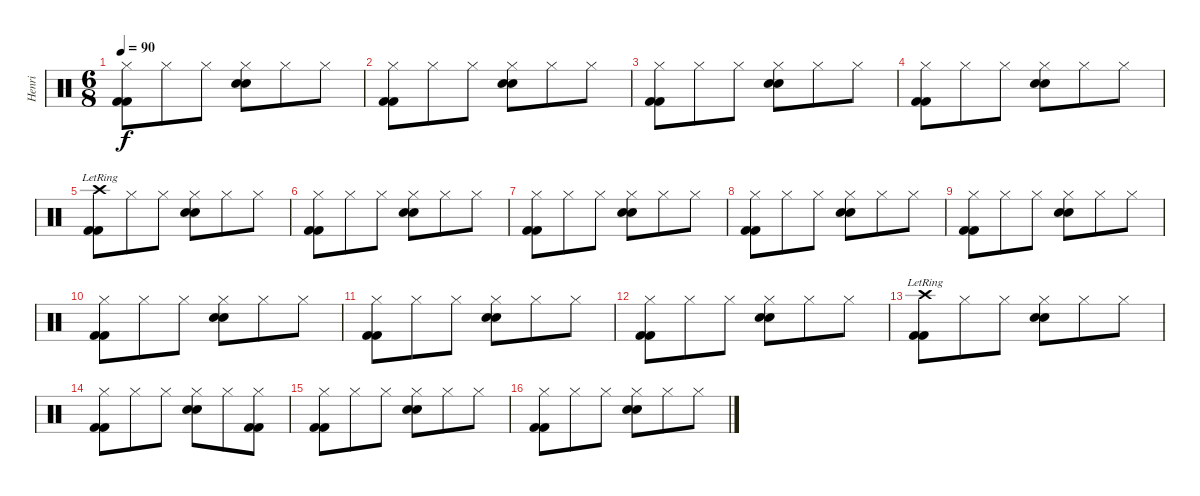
\track ("Henri" "Henri") {instrument percussion}
\staff {score}
\articulation defaults
\ts (6 8)
\tempo 90
\clef neutral
\ks c
("Hi-Hat (closed)" "Kick (hit) 2" "Kick (hit) 2").8{dy f} "Hi-Hat (closed)".8 "Hi-Hat (closed)".8 ("Hi-Hat (closed)" "Electric Snare (hit)" "Electric Snare (hit)").8 "Hi-Hat (closed)".8 "Hi-Hat (closed)".8 |
("Hi-Hat (closed)" "Kick (hit) 2" "Kick (hit) 2").8 "Hi-Hat (closed)".8 "Hi-Hat (closed)".8 ("Hi-Hat (closed)" "Electric Snare (hit)" "Electric Snare (hit)").8 "Hi-Hat (closed)".8 "Hi-Hat (closed)".8 |
("Hi-Hat (closed)" "Kick (hit) 2" "Kick (hit) 2").8 "Hi-Hat (closed)".8 "Hi-Hat (closed)".8 ("Hi-Hat (closed)" "Electric Snare (hit)" "Electric Snare (hit)").8 "Hi-Hat (closed)".8 "Hi-Hat (closed)".8 |
("Hi-Hat (closed)" "Kick (hit) 2" "Kick (hit) 2").8 "Hi-Hat (closed)".8 "Hi-Hat (closed)".8 ("Hi-Hat (closed)" "Electric Snare (hit)" "Electric Snare (hit)").8 "Hi-Hat (closed)".8 "Hi-Hat (closed)".8 |
("Crash high (hit)"{lr} "Kick (hit) 2" "Kick (hit) 2").8 "Hi-Hat (closed)".8 "Hi-Hat (closed)".8 ("Hi-Hat (closed)" "Electric Snare (hit)" "Electric Snare (hit)").8 "Hi-Hat (closed)".8 "Hi-Hat (closed)".8 |
("Hi-Hat (closed)" "Kick (hit) 2" "Kick (hit) 2").8 "Hi-Hat (closed)".8 "Hi-Hat (closed)".8 ("Hi-Hat (closed)" "Electric Snare (hit)" "Electric Snare (hit)").8 "Hi-Hat (closed)".8 "Hi-Hat (closed)".8 |
("Hi-Hat (closed)" "Kick (hit) 2" "Kick (hit) 2").8 "Hi-Hat (closed)".8 "Hi-Hat (closed)".8 ("Hi-Hat (closed)" "Electric Snare (hit)" "Electric Snare (hit)").8 "Hi-Hat (closed)".8 "Hi-Hat (closed)".8 |
("Hi-Hat (closed)" "Kick (hit) 2" "Kick (hit) 2").8 "Hi-Hat (closed)".8 "Hi-Hat (closed)".8 ("Hi-Hat (closed)" "Electric Snare (hit)" "Electric Snare (hit)").8 "Hi-Hat (closed)".8 "Hi-Hat (closed)".8 |
("Hi-Hat (closed)" "Kick (hit) 2" "Kick (hit) 2").8 "Hi-Hat (closed)".8 "Hi-Hat (closed)".8 ("Hi-Hat (closed)" "Electric Snare (hit)" "Electric Snare (hit)").8 "Hi-Hat (closed)".8 "Hi-Hat (closed)".8 |
("Hi-Hat (closed)" "Kick (hit) 2" "Kick (hit) 2").8 "Hi-Hat (closed)".8 "Hi-Hat (closed)".8 ("Hi-Hat (closed)" "Electric Snare (hit)" "Electric Snare (hit)").8 "Hi-Hat (closed)".8 "Hi-Hat (closed)".8 |
("Hi-Hat (closed)" "Kick (hit) 2" "Kick (hit) 2").8 "Hi-Hat (closed)".8 "Hi-Hat (closed)".8 ("Hi-Hat (closed)" "Electric Snare (hit)" "Electric Snare (hit)").8 "Hi-Hat (closed)".8 "Hi-Hat (closed)".8 |
("Hi-Hat (closed)" "Kick (hit) 2" "Kick (hit) 2").8 "Hi-Hat (closed)".8 "Hi-Hat (closed)".8 ("Hi-Hat (closed)" "Electric Snare (hit)" "Electric Snare (hit)").8 "Hi-Hat (closed)".8 "Hi-Hat (closed)".8 |
("Crash high (hit)"{lr} "Kick (hit) 2" "Kick (hit) 2").8 "Hi-Hat (closed)".8 "Hi-Hat (closed)".8 ("Hi-Hat (closed)" "Electric Snare (hit)" "Electric Snare (hit)").8 "Hi-Hat (closed)".8 "Hi-Hat (closed)".8 |
("Hi-Hat (closed)" "Kick (hit) 2" "Kick (hit) 2").8 "Hi-Hat (closed)".8 "Hi-Hat (closed)".8 ("Hi-Hat (closed)" "Electric Snare (hit)" "Electric Snare (hit)").8 "Hi-Hat (closed)".8 ("Hi-Hat (closed)" "Kick (hit) 2" "Kick (hit) 2").8 |
("Hi-Hat (closed)" "Kick (hit) 2" "Kick (hit) 2").8{volume 0} "Hi-Hat (closed)".8 "Hi-Hat (closed)".8 ("Hi-Hat (closed)" "Electric Snare (hit)" "Electric Snare (hit)").8 "Hi-Hat (closed)".8 "Hi-Hat (closed)".8 |
("Hi-Hat (closed)" "Kick (hit) 2" "Kick (hit) 2").8 "Hi-Hat (closed)".8 "Hi-Hat (closed)".8 ("Hi-Hat (closed)" "Electric Snare (hit)" "Electric Snare (hit)").8 "Hi-Hat (closed)".8 "Hi-Hat (closed)".8
